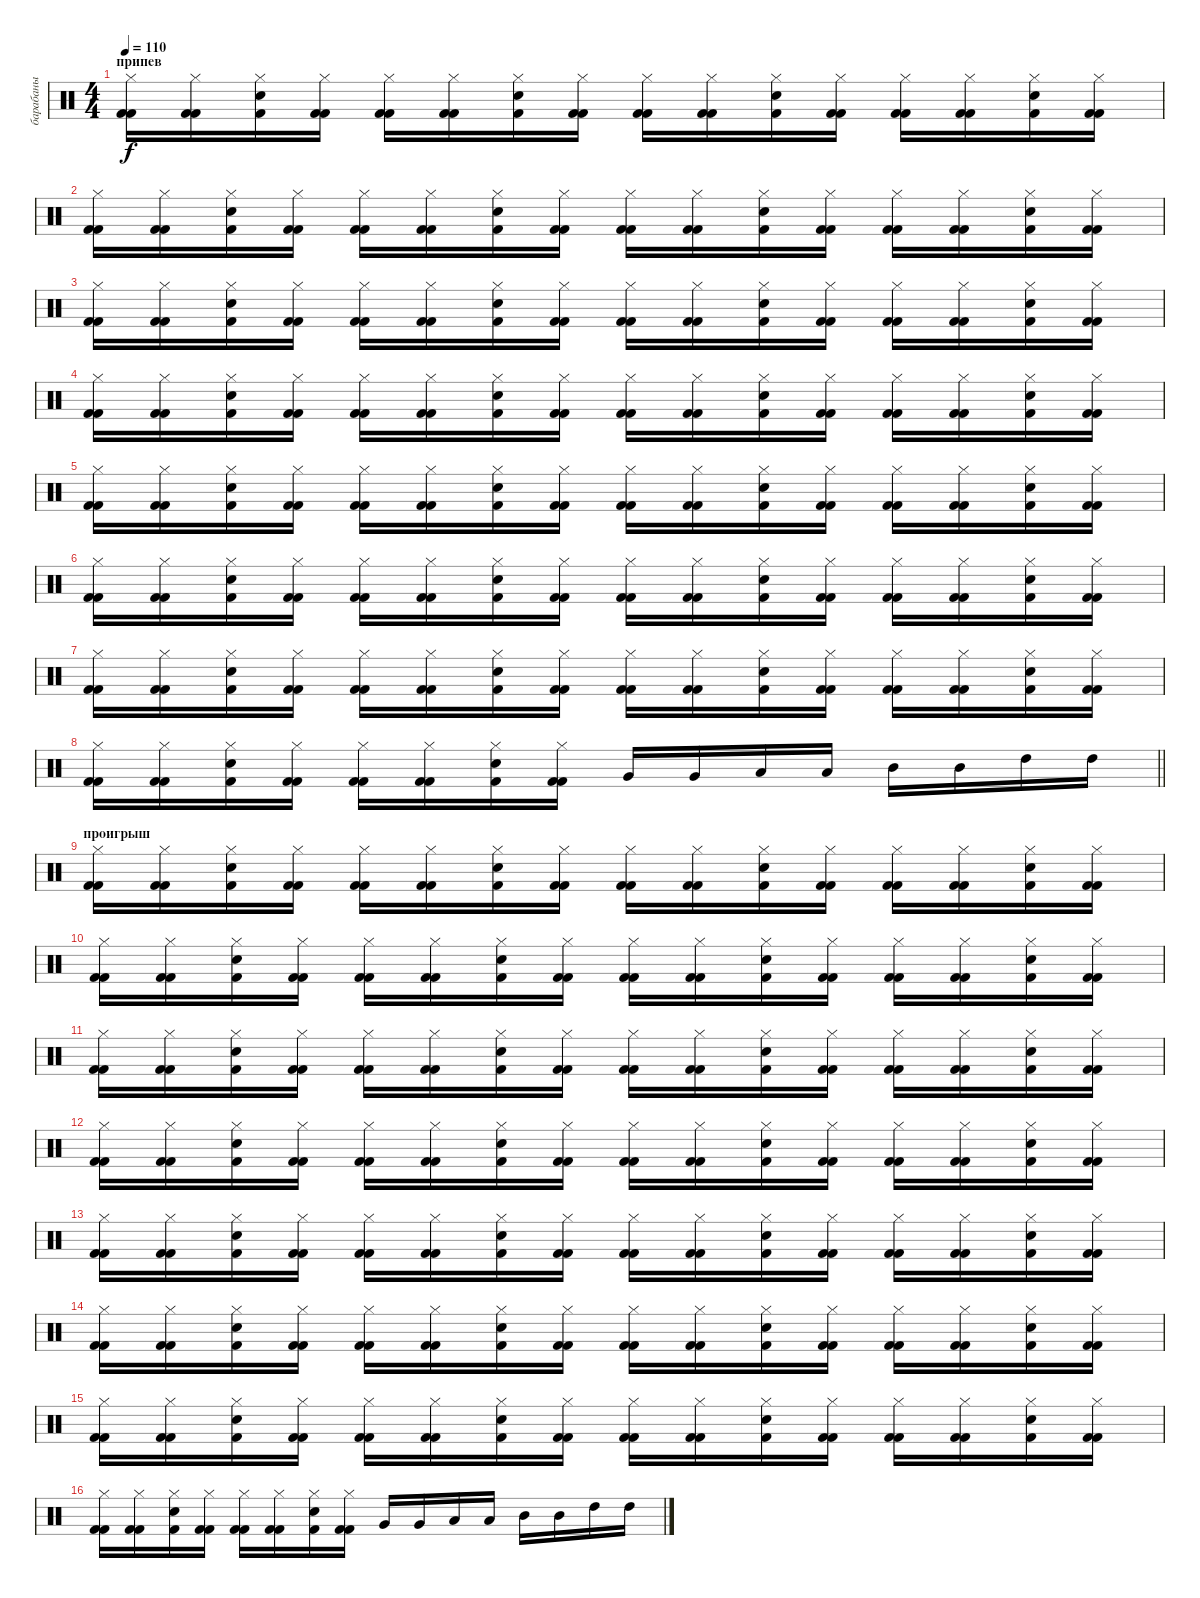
\track ("барабаны" "барабаны") {instrument percussion}
\staff {score}
\articulation defaults
\ts (4 4)
\section ("" "припев")
\tempo 110
\clef neutral
\ks c
("Hi-Hat (closed)" "Kick (hit) 2" "Kick (hit) 2").16{dy f} ("Hi-Hat (closed)" "Kick (hit) 2" "Kick (hit) 2").16 ("Hi-Hat (closed)" "Snare (hit) 2" "Kick (hit) 2").16 ("Hi-Hat (closed)" "Kick (hit) 2" "Kick (hit) 2").16 ("Hi-Hat (closed)" "Kick (hit) 2" "Kick (hit) 2").16 ("Hi-Hat (closed)" "Kick (hit) 2" "Kick (hit) 2").16 ("Hi-Hat (closed)" "Snare (hit) 2" "Kick (hit) 2").16 ("Hi-Hat (closed)" "Kick (hit) 2" "Kick (hit) 2").16 ("Hi-Hat (closed)" "Kick (hit) 2" "Kick (hit) 2").16 ("Hi-Hat (closed)" "Kick (hit) 2" "Kick (hit) 2").16 ("Hi-Hat (closed)" "Snare (hit) 2" "Kick (hit) 2").16 ("Hi-Hat (closed)" "Kick (hit) 2" "Kick (hit) 2").16 ("Hi-Hat (closed)" "Kick (hit) 2" "Kick (hit) 2").16 ("Hi-Hat (closed)" "Kick (hit) 2" "Kick (hit) 2").16 ("Hi-Hat (closed)" "Snare (hit) 2" "Kick (hit) 2").16 ("Hi-Hat (closed)" "Kick (hit) 2" "Kick (hit) 2").16 |
("Hi-Hat (closed)" "Kick (hit) 2" "Kick (hit) 2").16 ("Hi-Hat (closed)" "Kick (hit) 2" "Kick (hit) 2").16 ("Hi-Hat (closed)" "Snare (hit) 2" "Kick (hit) 2").16 ("Hi-Hat (closed)" "Kick (hit) 2" "Kick (hit) 2").16 ("Hi-Hat (closed)" "Kick (hit) 2" "Kick (hit) 2").16 ("Hi-Hat (closed)" "Kick (hit) 2" "Kick (hit) 2").16 ("Hi-Hat (closed)" "Snare (hit) 2" "Kick (hit) 2").16 ("Hi-Hat (closed)" "Kick (hit) 2" "Kick (hit) 2").16 ("Hi-Hat (closed)" "Kick (hit) 2" "Kick (hit) 2").16 ("Hi-Hat (closed)" "Kick (hit) 2" "Kick (hit) 2").16 ("Hi-Hat (closed)" "Snare (hit) 2" "Kick (hit) 2").16 ("Hi-Hat (closed)" "Kick (hit) 2" "Kick (hit) 2").16 ("Hi-Hat (closed)" "Kick (hit) 2" "Kick (hit) 2").16 ("Hi-Hat (closed)" "Kick (hit) 2" "Kick (hit) 2").16 ("Hi-Hat (closed)" "Snare (hit) 2" "Kick (hit) 2").16 ("Hi-Hat (closed)" "Kick (hit) 2" "Kick (hit) 2").16 |
("Hi-Hat (closed)" "Kick (hit) 2" "Kick (hit) 2").16 ("Hi-Hat (closed)" "Kick (hit) 2" "Kick (hit) 2").16 ("Hi-Hat (closed)" "Snare (hit) 2" "Kick (hit) 2").16 ("Hi-Hat (closed)" "Kick (hit) 2" "Kick (hit) 2").16 ("Hi-Hat (closed)" "Kick (hit) 2" "Kick (hit) 2").16 ("Hi-Hat (closed)" "Kick (hit) 2" "Kick (hit) 2").16 ("Hi-Hat (closed)" "Snare (hit) 2" "Kick (hit) 2").16 ("Hi-Hat (closed)" "Kick (hit) 2" "Kick (hit) 2").16 ("Hi-Hat (closed)" "Kick (hit) 2" "Kick (hit) 2").16 ("Hi-Hat (closed)" "Kick (hit) 2" "Kick (hit) 2").16 ("Hi-Hat (closed)" "Snare (hit) 2" "Kick (hit) 2").16 ("Hi-Hat (closed)" "Kick (hit) 2" "Kick (hit) 2").16 ("Hi-Hat (closed)" "Kick (hit) 2" "Kick (hit) 2").16 ("Hi-Hat (closed)" "Kick (hit) 2" "Kick (hit) 2").16 ("Hi-Hat (closed)" "Snare (hit) 2" "Kick (hit) 2").16 ("Hi-Hat (closed)" "Kick (hit) 2" "Kick (hit) 2").16 |
("Hi-Hat (closed)" "Kick (hit) 2" "Kick (hit) 2").16 ("Hi-Hat (closed)" "Kick (hit) 2" "Kick (hit) 2").16 ("Hi-Hat (closed)" "Snare (hit) 2" "Kick (hit) 2").16 ("Hi-Hat (closed)" "Kick (hit) 2" "Kick (hit) 2").16 ("Hi-Hat (closed)" "Kick (hit) 2" "Kick (hit) 2").16 ("Hi-Hat (closed)" "Kick (hit) 2" "Kick (hit) 2").16 ("Hi-Hat (closed)" "Snare (hit) 2" "Kick (hit) 2").16 ("Hi-Hat (closed)" "Kick (hit) 2" "Kick (hit) 2").16 ("Hi-Hat (closed)" "Kick (hit) 2" "Kick (hit) 2").16 ("Hi-Hat (closed)" "Kick (hit) 2" "Kick (hit) 2").16 ("Hi-Hat (closed)" "Snare (hit) 2" "Kick (hit) 2").16 ("Hi-Hat (closed)" "Kick (hit) 2" "Kick (hit) 2").16 ("Hi-Hat (closed)" "Kick (hit) 2" "Kick (hit) 2").16 ("Hi-Hat (closed)" "Kick (hit) 2" "Kick (hit) 2").16 ("Hi-Hat (closed)" "Snare (hit) 2" "Kick (hit) 2").16 ("Hi-Hat (closed)" "Kick (hit) 2" "Kick (hit) 2").16 |
("Hi-Hat (closed)" "Kick (hit) 2" "Kick (hit) 2").16 ("Hi-Hat (closed)" "Kick (hit) 2" "Kick (hit) 2").16 ("Hi-Hat (closed)" "Snare (hit) 2" "Kick (hit) 2").16 ("Hi-Hat (closed)" "Kick (hit) 2" "Kick (hit) 2").16 ("Hi-Hat (closed)" "Kick (hit) 2" "Kick (hit) 2").16 ("Hi-Hat (closed)" "Kick (hit) 2" "Kick (hit) 2").16 ("Hi-Hat (closed)" "Snare (hit) 2" "Kick (hit) 2").16 ("Hi-Hat (closed)" "Kick (hit) 2" "Kick (hit) 2").16 ("Hi-Hat (closed)" "Kick (hit) 2" "Kick (hit) 2").16 ("Hi-Hat (closed)" "Kick (hit) 2" "Kick (hit) 2").16 ("Hi-Hat (closed)" "Snare (hit) 2" "Kick (hit) 2").16 ("Hi-Hat (closed)" "Kick (hit) 2" "Kick (hit) 2").16 ("Hi-Hat (closed)" "Kick (hit) 2" "Kick (hit) 2").16 ("Hi-Hat (closed)" "Kick (hit) 2" "Kick (hit) 2").16 ("Hi-Hat (closed)" "Snare (hit) 2" "Kick (hit) 2").16 ("Hi-Hat (closed)" "Kick (hit) 2" "Kick (hit) 2").16 |
("Hi-Hat (closed)" "Kick (hit) 2" "Kick (hit) 2").16 ("Hi-Hat (closed)" "Kick (hit) 2" "Kick (hit) 2").16 ("Hi-Hat (closed)" "Snare (hit) 2" "Kick (hit) 2").16 ("Hi-Hat (closed)" "Kick (hit) 2" "Kick (hit) 2").16 ("Hi-Hat (closed)" "Kick (hit) 2" "Kick (hit) 2").16 ("Hi-Hat (closed)" "Kick (hit) 2" "Kick (hit) 2").16 ("Hi-Hat (closed)" "Snare (hit) 2" "Kick (hit) 2").16 ("Hi-Hat (closed)" "Kick (hit) 2" "Kick (hit) 2").16 ("Hi-Hat (closed)" "Kick (hit) 2" "Kick (hit) 2").16 ("Hi-Hat (closed)" "Kick (hit) 2" "Kick (hit) 2").16 ("Hi-Hat (closed)" "Snare (hit) 2" "Kick (hit) 2").16 ("Hi-Hat (closed)" "Kick (hit) 2" "Kick (hit) 2").16 ("Hi-Hat (closed)" "Kick (hit) 2" "Kick (hit) 2").16 ("Hi-Hat (closed)" "Kick (hit) 2" "Kick (hit) 2").16 ("Hi-Hat (closed)" "Snare (hit) 2" "Kick (hit) 2").16 ("Hi-Hat (closed)" "Kick (hit) 2" "Kick (hit) 2").16 |
("Hi-Hat (closed)" "Kick (hit) 2" "Kick (hit) 2").16 ("Hi-Hat (closed)" "Kick (hit) 2" "Kick (hit) 2").16 ("Hi-Hat (closed)" "Snare (hit) 2" "Kick (hit) 2").16 ("Hi-Hat (closed)" "Kick (hit) 2" "Kick (hit) 2").16 ("Hi-Hat (closed)" "Kick (hit) 2" "Kick (hit) 2").16 ("Hi-Hat (closed)" "Kick (hit) 2" "Kick (hit) 2").16 ("Hi-Hat (closed)" "Snare (hit) 2" "Kick (hit) 2").16 ("Hi-Hat (closed)" "Kick (hit) 2" "Kick (hit) 2").16 ("Hi-Hat (closed)" "Kick (hit) 2" "Kick (hit) 2").16 ("Hi-Hat (closed)" "Kick (hit) 2" "Kick (hit) 2").16 ("Hi-Hat (closed)" "Snare (hit) 2" "Kick (hit) 2").16 ("Hi-Hat (closed)" "Kick (hit) 2" "Kick (hit) 2").16 ("Hi-Hat (closed)" "Kick (hit) 2" "Kick (hit) 2").16 ("Hi-Hat (closed)" "Kick (hit) 2" "Kick (hit) 2").16 ("Hi-Hat (closed)" "Snare (hit) 2" "Kick (hit) 2").16 ("Hi-Hat (closed)" "Kick (hit) 2" "Kick (hit) 2").16 |
\barLineRight lightlight
("Hi-Hat (closed)" "Kick (hit) 2" "Kick (hit) 2").16 ("Hi-Hat (closed)" "Kick (hit) 2" "Kick (hit) 2").16 ("Hi-Hat (closed)" "Snare (hit) 2" "Kick (hit) 2").16 ("Hi-Hat (closed)" "Kick (hit) 2" "Kick (hit) 2").16 ("Hi-Hat (closed)" "Kick (hit) 2" "Kick (hit) 2").16 ("Hi-Hat (closed)" "Kick (hit) 2" "Kick (hit) 2").16 ("Hi-Hat (closed)" "Snare (hit) 2" "Kick (hit) 2").16 ("Hi-Hat (closed)" "Kick (hit) 2" "Kick (hit) 2").16 "Very Low Tom (hit)".16 "Very Low Tom (hit)".16 "Low Tom (hit)".16 "Low Tom (hit)".16 "Mid Tom (hit)".16 "Mid Tom (hit)".16 "High Tom (hit)".16 "High Tom (hit)".16 |
\section ("" "проигрыш")
("Hi-Hat (closed)" "Kick (hit) 2" "Kick (hit) 2").16 ("Hi-Hat (closed)" "Kick (hit) 2" "Kick (hit) 2").16 ("Hi-Hat (closed)" "Snare (hit) 2" "Kick (hit) 2").16 ("Hi-Hat (closed)" "Kick (hit) 2" "Kick (hit) 2").16 ("Hi-Hat (closed)" "Kick (hit) 2" "Kick (hit) 2").16 ("Hi-Hat (closed)" "Kick (hit) 2" "Kick (hit) 2").16 ("Hi-Hat (closed)" "Snare (hit) 2" "Kick (hit) 2").16 ("Hi-Hat (closed)" "Kick (hit) 2" "Kick (hit) 2").16 ("Hi-Hat (closed)" "Kick (hit) 2" "Kick (hit) 2").16 ("Hi-Hat (closed)" "Kick (hit) 2" "Kick (hit) 2").16 ("Hi-Hat (closed)" "Snare (hit) 2" "Kick (hit) 2").16 ("Hi-Hat (closed)" "Kick (hit) 2" "Kick (hit) 2").16 ("Hi-Hat (closed)" "Kick (hit) 2" "Kick (hit) 2").16 ("Hi-Hat (closed)" "Kick (hit) 2" "Kick (hit) 2").16 ("Hi-Hat (closed)" "Snare (hit) 2" "Kick (hit) 2").16 ("Hi-Hat (closed)" "Kick (hit) 2" "Kick (hit) 2").16 |
("Hi-Hat (closed)" "Kick (hit) 2" "Kick (hit) 2").16 ("Hi-Hat (closed)" "Kick (hit) 2" "Kick (hit) 2").16 ("Hi-Hat (closed)" "Snare (hit) 2" "Kick (hit) 2").16 ("Hi-Hat (closed)" "Kick (hit) 2" "Kick (hit) 2").16 ("Hi-Hat (closed)" "Kick (hit) 2" "Kick (hit) 2").16 ("Hi-Hat (closed)" "Kick (hit) 2" "Kick (hit) 2").16 ("Hi-Hat (closed)" "Snare (hit) 2" "Kick (hit) 2").16 ("Hi-Hat (closed)" "Kick (hit) 2" "Kick (hit) 2").16 ("Hi-Hat (closed)" "Kick (hit) 2" "Kick (hit) 2").16 ("Hi-Hat (closed)" "Kick (hit) 2" "Kick (hit) 2").16 ("Hi-Hat (closed)" "Snare (hit) 2" "Kick (hit) 2").16 ("Hi-Hat (closed)" "Kick (hit) 2" "Kick (hit) 2").16 ("Hi-Hat (closed)" "Kick (hit) 2" "Kick (hit) 2").16 ("Hi-Hat (closed)" "Kick (hit) 2" "Kick (hit) 2").16 ("Hi-Hat (closed)" "Snare (hit) 2" "Kick (hit) 2").16 ("Hi-Hat (closed)" "Kick (hit) 2" "Kick (hit) 2").16 |
("Hi-Hat (closed)" "Kick (hit) 2" "Kick (hit) 2").16 ("Hi-Hat (closed)" "Kick (hit) 2" "Kick (hit) 2").16 ("Hi-Hat (closed)" "Snare (hit) 2" "Kick (hit) 2").16 ("Hi-Hat (closed)" "Kick (hit) 2" "Kick (hit) 2").16 ("Hi-Hat (closed)" "Kick (hit) 2" "Kick (hit) 2").16 ("Hi-Hat (closed)" "Kick (hit) 2" "Kick (hit) 2").16 ("Hi-Hat (closed)" "Snare (hit) 2" "Kick (hit) 2").16 ("Hi-Hat (closed)" "Kick (hit) 2" "Kick (hit) 2").16 ("Hi-Hat (closed)" "Kick (hit) 2" "Kick (hit) 2").16 ("Hi-Hat (closed)" "Kick (hit) 2" "Kick (hit) 2").16 ("Hi-Hat (closed)" "Snare (hit) 2" "Kick (hit) 2").16 ("Hi-Hat (closed)" "Kick (hit) 2" "Kick (hit) 2").16 ("Hi-Hat (closed)" "Kick (hit) 2" "Kick (hit) 2").16 ("Hi-Hat (closed)" "Kick (hit) 2" "Kick (hit) 2").16 ("Hi-Hat (closed)" "Snare (hit) 2" "Kick (hit) 2").16 ("Hi-Hat (closed)" "Kick (hit) 2" "Kick (hit) 2").16 |
("Hi-Hat (closed)" "Kick (hit) 2" "Kick (hit) 2").16 ("Hi-Hat (closed)" "Kick (hit) 2" "Kick (hit) 2").16 ("Hi-Hat (closed)" "Snare (hit) 2" "Kick (hit) 2").16 ("Hi-Hat (closed)" "Kick (hit) 2" "Kick (hit) 2").16 ("Hi-Hat (closed)" "Kick (hit) 2" "Kick (hit) 2").16 ("Hi-Hat (closed)" "Kick (hit) 2" "Kick (hit) 2").16 ("Hi-Hat (closed)" "Snare (hit) 2" "Kick (hit) 2").16 ("Hi-Hat (closed)" "Kick (hit) 2" "Kick (hit) 2").16 ("Hi-Hat (closed)" "Kick (hit) 2" "Kick (hit) 2").16 ("Hi-Hat (closed)" "Kick (hit) 2" "Kick (hit) 2").16 ("Hi-Hat (closed)" "Snare (hit) 2" "Kick (hit) 2").16 ("Hi-Hat (closed)" "Kick (hit) 2" "Kick (hit) 2").16 ("Hi-Hat (closed)" "Kick (hit) 2" "Kick (hit) 2").16 ("Hi-Hat (closed)" "Kick (hit) 2" "Kick (hit) 2").16 ("Hi-Hat (closed)" "Snare (hit) 2" "Kick (hit) 2").16 ("Hi-Hat (closed)" "Kick (hit) 2" "Kick (hit) 2").16 |
("Hi-Hat (closed)" "Kick (hit) 2" "Kick (hit) 2").16 ("Hi-Hat (closed)" "Kick (hit) 2" "Kick (hit) 2").16 ("Hi-Hat (closed)" "Snare (hit) 2" "Kick (hit) 2").16 ("Hi-Hat (closed)" "Kick (hit) 2" "Kick (hit) 2").16 ("Hi-Hat (closed)" "Kick (hit) 2" "Kick (hit) 2").16 ("Hi-Hat (closed)" "Kick (hit) 2" "Kick (hit) 2").16 ("Hi-Hat (closed)" "Snare (hit) 2" "Kick (hit) 2").16 ("Hi-Hat (closed)" "Kick (hit) 2" "Kick (hit) 2").16 ("Hi-Hat (closed)" "Kick (hit) 2" "Kick (hit) 2").16 ("Hi-Hat (closed)" "Kick (hit) 2" "Kick (hit) 2").16 ("Hi-Hat (closed)" "Snare (hit) 2" "Kick (hit) 2").16 ("Hi-Hat (closed)" "Kick (hit) 2" "Kick (hit) 2").16 ("Hi-Hat (closed)" "Kick (hit) 2" "Kick (hit) 2").16 ("Hi-Hat (closed)" "Kick (hit) 2" "Kick (hit) 2").16 ("Hi-Hat (closed)" "Snare (hit) 2" "Kick (hit) 2").16 ("Hi-Hat (closed)" "Kick (hit) 2" "Kick (hit) 2").16 |
("Hi-Hat (closed)" "Kick (hit) 2" "Kick (hit) 2").16 ("Hi-Hat (closed)" "Kick (hit) 2" "Kick (hit) 2").16 ("Hi-Hat (closed)" "Snare (hit) 2" "Kick (hit) 2").16 ("Hi-Hat (closed)" "Kick (hit) 2" "Kick (hit) 2").16 ("Hi-Hat (closed)" "Kick (hit) 2" "Kick (hit) 2").16 ("Hi-Hat (closed)" "Kick (hit) 2" "Kick (hit) 2").16 ("Hi-Hat (closed)" "Snare (hit) 2" "Kick (hit) 2").16 ("Hi-Hat (closed)" "Kick (hit) 2" "Kick (hit) 2").16 ("Hi-Hat (closed)" "Kick (hit) 2" "Kick (hit) 2").16 ("Hi-Hat (closed)" "Kick (hit) 2" "Kick (hit) 2").16 ("Hi-Hat (closed)" "Snare (hit) 2" "Kick (hit) 2").16 ("Hi-Hat (closed)" "Kick (hit) 2" "Kick (hit) 2").16 ("Hi-Hat (closed)" "Kick (hit) 2" "Kick (hit) 2").16 ("Hi-Hat (closed)" "Kick (hit) 2" "Kick (hit) 2").16 ("Hi-Hat (closed)" "Snare (hit) 2" "Kick (hit) 2").16 ("Hi-Hat (closed)" "Kick (hit) 2" "Kick (hit) 2").16 |
("Hi-Hat (closed)" "Kick (hit) 2" "Kick (hit) 2").16 ("Hi-Hat (closed)" "Kick (hit) 2" "Kick (hit) 2").16 ("Hi-Hat (closed)" "Snare (hit) 2" "Kick (hit) 2").16 ("Hi-Hat (closed)" "Kick (hit) 2" "Kick (hit) 2").16 ("Hi-Hat (closed)" "Kick (hit) 2" "Kick (hit) 2").16 ("Hi-Hat (closed)" "Kick (hit) 2" "Kick (hit) 2").16 ("Hi-Hat (closed)" "Snare (hit) 2" "Kick (hit) 2").16 ("Hi-Hat (closed)" "Kick (hit) 2" "Kick (hit) 2").16 ("Hi-Hat (closed)" "Kick (hit) 2" "Kick (hit) 2").16 ("Hi-Hat (closed)" "Kick (hit) 2" "Kick (hit) 2").16 ("Hi-Hat (closed)" "Snare (hit) 2" "Kick (hit) 2").16 ("Hi-Hat (closed)" "Kick (hit) 2" "Kick (hit) 2").16 ("Hi-Hat (closed)" "Kick (hit) 2" "Kick (hit) 2").16 ("Hi-Hat (closed)" "Kick (hit) 2" "Kick (hit) 2").16 ("Hi-Hat (closed)" "Snare (hit) 2" "Kick (hit) 2").16 ("Hi-Hat (closed)" "Kick (hit) 2" "Kick (hit) 2").16 |
("Hi-Hat (closed)" "Kick (hit) 2" "Kick (hit) 2").16 ("Hi-Hat (closed)" "Kick (hit) 2" "Kick (hit) 2").16 ("Hi-Hat (closed)" "Snare (hit) 2" "Kick (hit) 2").16 ("Hi-Hat (closed)" "Kick (hit) 2" "Kick (hit) 2").16 ("Hi-Hat (closed)" "Kick (hit) 2" "Kick (hit) 2").16 ("Hi-Hat (closed)" "Kick (hit) 2" "Kick (hit) 2").16 ("Hi-Hat (closed)" "Snare (hit) 2" "Kick (hit) 2").16 ("Hi-Hat (closed)" "Kick (hit) 2" "Kick (hit) 2").16 "Very Low Tom (hit)".16 "Very Low Tom (hit)".16 "Low Tom (hit)".16 "Low Tom (hit)".16 "Mid Tom (hit)".16 "Mid Tom (hit)".16 "High Tom (hit)".16 "High Tom (hit)".16
